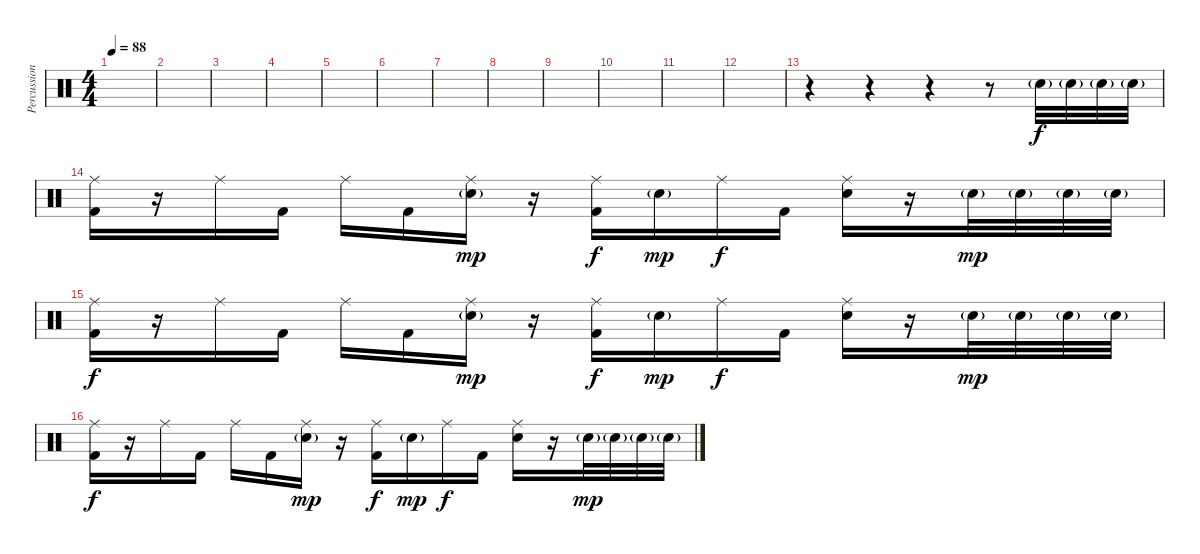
\track ("Percussion" "Percussion") {instrument percussion}
\staff {score}
\articulation defaults
\ts (4 4)
\tempo 88
\clef neutral
\ks c
|
|
|
|
|
|
|
|
|
|
|
|
r.4 r.4 r.4 r.8 "Electric Snare (hit)"{g}.32 "Electric Snare (hit)"{g}.32 "Electric Snare (hit)"{g}.32 "Electric Snare (hit)"{g}.32 |
("Ride (middle)" "Kick (hit) 2").16{dy f} r.16 "Ride (middle)".16 "Kick (hit) 2".16 "Ride (middle)".16 "Kick (hit) 2".16 ("Ride (middle)" "Electric Snare (hit)"{g}).16{dy mp} r.16 ("Ride (middle)" "Kick (hit) 2").16{dy f} "Electric Snare (hit)"{g}.16{dy mp} "Ride (middle)".16{dy f} "Kick (hit) 2".16 ("Ride (middle)" "Electric Snare (hit)").16 r.16 "Electric Snare (hit)"{g}.32{dy mp} "Electric Snare (hit)"{g}.32 "Electric Snare (hit)"{g}.32 "Electric Snare (hit)"{g}.32 |
("Ride (middle)" "Kick (hit) 2").16{dy f} r.16 "Ride (middle)".16 "Kick (hit) 2".16 "Ride (middle)".16 "Kick (hit) 2".16 ("Ride (middle)" "Electric Snare (hit)"{g}).16{dy mp} r.16 ("Ride (middle)" "Kick (hit) 2").16{dy f} "Electric Snare (hit)"{g}.16{dy mp} "Ride (middle)".16{dy f} "Kick (hit) 2".16 ("Ride (middle)" "Electric Snare (hit)").16 r.16 "Electric Snare (hit)"{g}.32{dy mp} "Electric Snare (hit)"{g}.32 "Electric Snare (hit)"{g}.32 "Electric Snare (hit)"{g}.32 |
("Ride (middle)" "Kick (hit) 2").16{dy f} r.16 "Ride (middle)".16 "Kick (hit) 2".16 "Ride (middle)".16 "Kick (hit) 2".16 ("Ride (middle)" "Electric Snare (hit)"{g}).16{dy mp} r.16 ("Ride (middle)" "Kick (hit) 2").16{dy f} "Electric Snare (hit)"{g}.16{dy mp} "Ride (middle)".16{dy f} "Kick (hit) 2".16 ("Ride (middle)" "Electric Snare (hit)").16 r.16 "Electric Snare (hit)"{g}.32{dy mp} "Electric Snare (hit)"{g}.32 "Electric Snare (hit)"{g}.32 "Electric Snare (hit)"{g}.32
